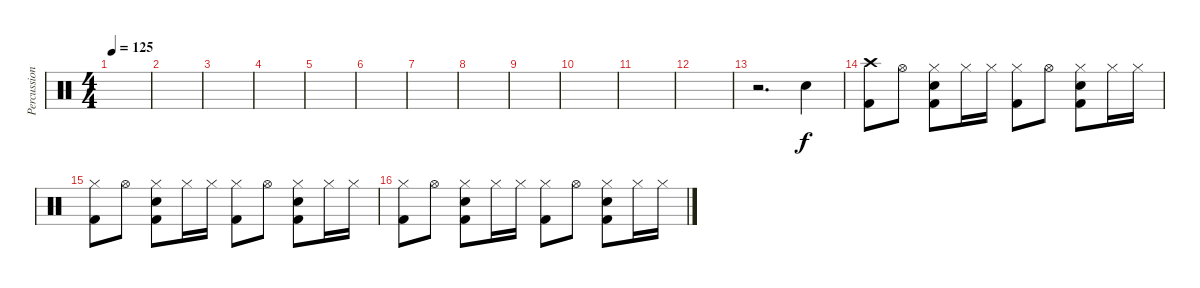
\track ("Percussion" "Percussion") {instrument percussion}
\staff {score}
\articulation defaults
\ts (4 4)
\tempo 125
\clef neutral
\ks c
|
|
|
|
|
|
|
|
|
|
|
|
r.2{d} "Electric Snare (hit)".4 |
("Crash high (hit)" "Kick (hit) 2").8 "Hi-Hat (open)".8 ("Hi-Hat (closed)" "Electric Snare (hit)" "Kick (hit) 2").8 "Hi-Hat (closed)".16 "Hi-Hat (closed)".16 ("Hi-Hat (closed)" "Kick (hit) 2").8 "Hi-Hat (open)".8 ("Hi-Hat (closed)" "Electric Snare (hit)" "Kick (hit) 2").8 "Hi-Hat (closed)".16 "Hi-Hat (closed)".16 |
("Hi-Hat (closed)" "Kick (hit) 2").8 "Hi-Hat (open)".8 ("Hi-Hat (closed)" "Electric Snare (hit)" "Kick (hit) 2").8 "Hi-Hat (closed)".16 "Hi-Hat (closed)".16 ("Hi-Hat (closed)" "Kick (hit) 2").8 "Hi-Hat (open)".8 ("Hi-Hat (closed)" "Electric Snare (hit)" "Kick (hit) 2").8 "Hi-Hat (closed)".16 "Hi-Hat (closed)".16 |
("Hi-Hat (closed)" "Kick (hit) 2").8 "Hi-Hat (open)".8 ("Hi-Hat (closed)" "Electric Snare (hit)" "Kick (hit) 2").8 "Hi-Hat (closed)".16 "Hi-Hat (closed)".16 ("Hi-Hat (closed)" "Kick (hit) 2").8 "Hi-Hat (open)".8 ("Hi-Hat (closed)" "Electric Snare (hit)" "Kick (hit) 2").8 "Hi-Hat (closed)".16 "Hi-Hat (closed)".16
